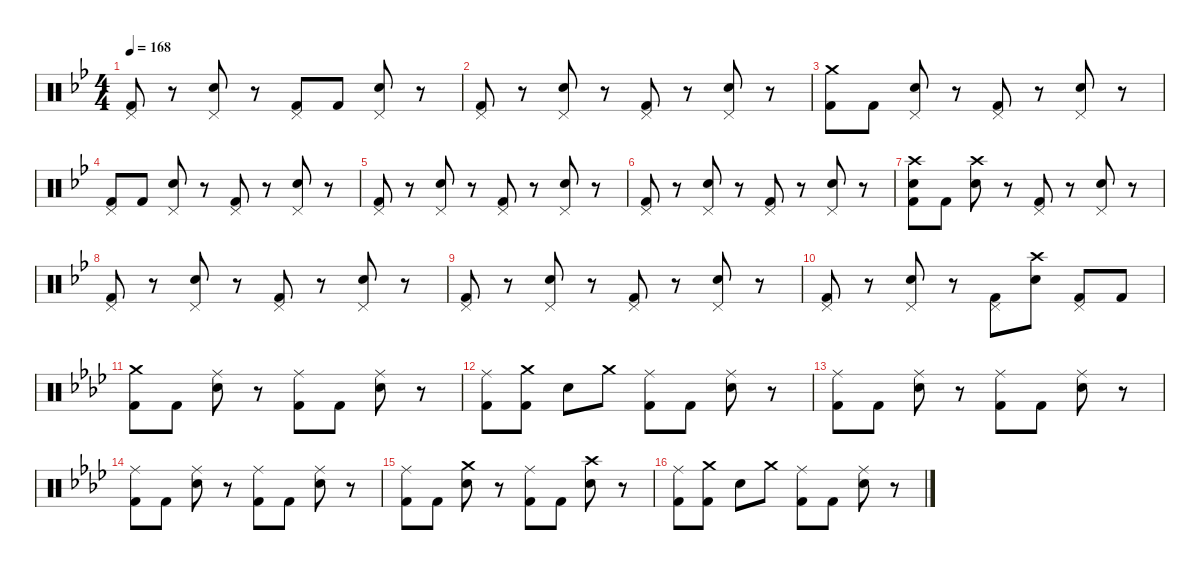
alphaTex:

\defaultSystemsLayout 4
\hideDynamics
\bracketExtendMode nobrackets
\singleTrackTrackNamePolicy hidden
\multiTrackTrackNamePolicy hidden
\firstSystemTrackNameMode fullname
\otherSystemsTrackNameOrientation horizontal
\track ("DRUMS" "drm.") {instrument percussion}
\staff {score}
\articulation defaults
\ts (4 4)
\tempo 168
\clef neutral
\ks bb
("Pedal Hi-Hat (hit)"{acc forcenatural} "Kick (hit) 2"{acc forcenatural}).8{dy ff beam Up} r.8{beam Up} ("Pedal Hi-Hat (hit)"{acc forcenatural} "Snare (hit) 2"{acc forcenatural}).8{beam Up} r.8{beam Up} ("Pedal Hi-Hat (hit)"{acc forcenatural} "Kick (hit) 2"{acc forcenatural}).8{beam Up} "Kick (hit) 2"{acc forcenatural}.8{dy mf beam Up} ("Pedal Hi-Hat (hit)"{acc forcenatural} "Snare (hit) 2"{acc forcenatural}).8{dy ff beam Up} r.8{beam Up} |
("Pedal Hi-Hat (hit)"{acc forcenatural} "Kick (hit) 2"{acc forcenatural}).8{beam Up} r.8{beam Up} ("Pedal Hi-Hat (hit)"{acc forcenatural} "Snare (hit) 2"{acc forcenatural}).8{beam Up} r.8{beam Up} ("Pedal Hi-Hat (hit)"{acc forcenatural} "Kick (hit) 2"{acc forcenatural}).8{beam Up} r.8{beam Up} ("Pedal Hi-Hat (hit)"{acc forcenatural} "Snare (hit) 2"{acc forcenatural}).8{beam Up} r.8{beam Up} |
("Crash medium (hit)"{acc forcenatural} "Kick (hit) 2"{acc forcenatural}).8{beam Down} "Kick (hit) 2"{acc forcenatural}.8{dy mf beam Down} ("Pedal Hi-Hat (hit)"{acc forcenatural} "Snare (hit) 2"{acc forcenatural}).8{dy ff beam Up} r.8{beam Up} ("Pedal Hi-Hat (hit)"{acc forcenatural} "Kick (hit) 2"{acc forcenatural}).8{beam Up} r.8{beam Up} ("Pedal Hi-Hat (hit)"{acc forcenatural} "Snare (hit) 2"{acc forcenatural}).8{beam Up} r.8{beam Up} |
("Pedal Hi-Hat (hit)"{acc forcenatural} "Kick (hit) 2"{acc forcenatural}).8{beam Up} "Kick (hit) 2"{acc forcenatural}.8{dy mf beam Up} ("Pedal Hi-Hat (hit)"{acc forcenatural} "Snare (hit) 2"{acc forcenatural}).8{dy ff beam Up} r.8{beam Up} ("Pedal Hi-Hat (hit)"{acc forcenatural} "Kick (hit) 2"{acc forcenatural}).8{beam Up} r.8{beam Up} ("Pedal Hi-Hat (hit)"{acc forcenatural} "Snare (hit) 2"{acc forcenatural}).8{beam Up} r.8{beam Up} |
("Pedal Hi-Hat (hit)"{acc forcenatural} "Kick (hit) 2"{acc forcenatural}).8{beam Up} r.8{beam Up} ("Pedal Hi-Hat (hit)"{acc forcenatural} "Snare (hit) 2"{acc forcenatural}).8{beam Up} r.8{beam Up} ("Pedal Hi-Hat (hit)"{acc forcenatural} "Kick (hit) 2"{acc forcenatural}).8{beam Up} r.8{beam Up} ("Pedal Hi-Hat (hit)"{acc forcenatural} "Snare (hit) 2"{acc forcenatural}).8{beam Up} r.8{beam Up} |
("Pedal Hi-Hat (hit)"{acc forcenatural} "Kick (hit) 2"{acc forcenatural}).8{beam Up} r.8{beam Up} ("Pedal Hi-Hat (hit)"{acc forcenatural} "Snare (hit) 2"{acc forcenatural}).8{beam Up} r.8{beam Up} ("Pedal Hi-Hat (hit)"{acc forcenatural} "Kick (hit) 2"{acc forcenatural}).8{beam Up} r.8{beam Up} ("Pedal Hi-Hat (hit)"{acc forcenatural} "Snare (hit) 2"{acc forcenatural}).8{beam Up} r.8{beam Up} |
("Crash high (hit)"{acc forcenatural} "Snare (hit) 2"{acc forcenatural} "Kick (hit) 2"{acc forcenatural}).8{beam Down} "Kick (hit) 2"{acc forcenatural}.8{dy mf beam Down} ("Crash high (hit)"{acc forcenatural} "Snare (hit) 2"{acc forcenatural}).8{dy ff beam Down} r.8{beam Down} ("Pedal Hi-Hat (hit)"{acc forcenatural} "Kick (hit) 2"{acc forcenatural}).8{beam Up} r.8{beam Up} ("Pedal Hi-Hat (hit)"{acc forcenatural} "Snare (hit) 2"{acc forcenatural}).8{beam Up} r.8{beam Up} |
("Pedal Hi-Hat (hit)"{acc forcenatural} "Kick (hit) 2"{acc forcenatural}).8{beam Up} r.8{beam Up} ("Pedal Hi-Hat (hit)"{acc forcenatural} "Snare (hit) 2"{acc forcenatural}).8{beam Up} r.8{beam Up} ("Pedal Hi-Hat (hit)"{acc forcenatural} "Kick (hit) 2"{acc forcenatural}).8{beam Up} r.8{beam Up} ("Pedal Hi-Hat (hit)"{acc forcenatural} "Snare (hit) 2"{acc forcenatural}).8{beam Up} r.8{beam Up} |
("Pedal Hi-Hat (hit)"{acc forcenatural} "Kick (hit) 2"{acc forcenatural}).8{beam Up} r.8{beam Up} ("Pedal Hi-Hat (hit)"{acc forcenatural} "Snare (hit) 2"{acc forcenatural}).8{beam Up} r.8{beam Up} ("Pedal Hi-Hat (hit)"{acc forcenatural} "Kick (hit) 2"{acc forcenatural}).8{beam Up} r.8{beam Up} ("Pedal Hi-Hat (hit)"{acc forcenatural} "Snare (hit) 2"{acc forcenatural}).8{beam Up} r.8{beam Up} |
("Pedal Hi-Hat (hit)"{acc forcenatural} "Kick (hit) 2"{acc forcenatural}).8{beam Up} r.8{beam Up} ("Pedal Hi-Hat (hit)"{acc forcenatural} "Snare (hit) 2"{acc forcenatural}).8{beam Up} r.8{beam Up} ("Pedal Hi-Hat (hit)"{acc forcenatural} "Kick (hit) 2"{acc forcenatural}).8{beam Down} ("Crash high (hit)"{acc forcenatural} "Snare (hit) 2"{acc forcenatural}).8{dy mf beam Down} ("Pedal Hi-Hat (hit)"{acc forcenatural} "Kick (hit) 2"{acc forcenatural}).8{beam Up} "Kick (hit) 2"{acc forcenatural}.8{beam Up} |
\ks ab
("Crash medium (hit)"{acc forcenatural} "Kick (hit) 2"{acc forcenatural}).8{dy ff beam Down} "Kick (hit) 2"{acc forcenatural}.8{beam Down} ("Ride (middle)"{acc forcenatural} "Snare (hit) 2"{acc forcenatural}).8{beam Down} r.8{beam Down} ("Ride (middle)"{acc forcenatural} "Kick (hit) 2"{acc forcenatural}).8{beam Down} "Kick (hit) 2"{acc forcenatural}.8{beam Down} ("Ride (middle)"{acc forcenatural} "Snare (hit) 2"{acc forcenatural}).8{beam Down} r.8{beam Down} |
("Ride (middle)"{acc forcenatural} "Kick (hit) 2"{acc forcenatural}).8{beam Down} ("Crash medium (hit)"{acc forcenatural} "Kick (hit) 2"{acc forcenatural}).8{dy f beam Down} "Snare (hit) 2"{acc forcenatural}.8{dy ff beam Down} "Crash medium (hit)"{acc forcenatural}.8{dy f beam Down} ("Ride (middle)"{acc forcenatural} "Kick (hit) 2"{acc forcenatural}).8{dy ff beam Down} "Kick (hit) 2"{acc forcenatural}.8{beam Down} ("Ride (middle)"{acc forcenatural} "Snare (hit) 2"{acc forcenatural}).8{beam Down} r.8{beam Down} |
("Ride (middle)"{acc forcenatural} "Kick (hit) 2"{acc forcenatural}).8{beam Down} "Kick (hit) 2"{acc forcenatural}.8{beam Down} ("Ride (middle)"{acc forcenatural} "Snare (hit) 2"{acc forcenatural}).8{beam Down} r.8{beam Down} ("Ride (middle)"{acc forcenatural} "Kick (hit) 2"{acc forcenatural}).8{beam Down} "Kick (hit) 2"{acc forcenatural}.8{beam Down} ("Ride (middle)"{acc forcenatural} "Snare (hit) 2"{acc forcenatural}).8{beam Down} r.8{beam Down} |
("Ride (middle)"{acc forcenatural} "Kick (hit) 2"{acc forcenatural}).8{beam Down} "Kick (hit) 2"{acc forcenatural}.8{beam Down} ("Ride (middle)"{acc forcenatural} "Snare (hit) 2"{acc forcenatural}).8{beam Down} r.8{beam Down} ("Ride (middle)"{acc forcenatural} "Kick (hit) 2"{acc forcenatural}).8{beam Down} "Kick (hit) 2"{acc forcenatural}.8{beam Down} ("Ride (middle)"{acc forcenatural} "Snare (hit) 2"{acc forcenatural}).8{beam Down} r.8{beam Down} |
("Ride (middle)"{acc forcenatural} "Kick (hit) 2"{acc forcenatural}).8{beam Down} "Kick (hit) 2"{acc forcenatural}.8{beam Down} ("Crash medium (hit)"{acc forcenatural} "Snare (hit) 2"{acc forcenatural}).8{beam Down} r.8{beam Down} ("Ride (middle)"{acc forcenatural} "Kick (hit) 2"{acc forcenatural}).8{beam Down} "Kick (hit) 2"{acc forcenatural}.8{beam Down} ("Crash high (hit)"{acc forcenatural} "Snare (hit) 2"{acc forcenatural}).8{beam Down} r.8{beam Down} |
("Ride (middle)"{acc forcenatural} "Kick (hit) 2"{acc forcenatural}).8{beam Down} ("Crash medium (hit)"{acc forcenatural} "Kick (hit) 2"{acc forcenatural}).8{dy f beam Down} "Snare (hit) 2"{acc forcenatural}.8{dy ff beam Down} "Crash medium (hit)"{acc forcenatural}.8{dy f beam Down} ("Ride (middle)"{acc forcenatural} "Kick (hit) 2"{acc forcenatural}).8{dy ff beam Down} "Kick (hit) 2"{acc forcenatural}.8{beam Down} ("Ride (middle)"{acc forcenatural} "Snare (hit) 2"{acc forcenatural}).8{beam Down} r.8{beam Down}
